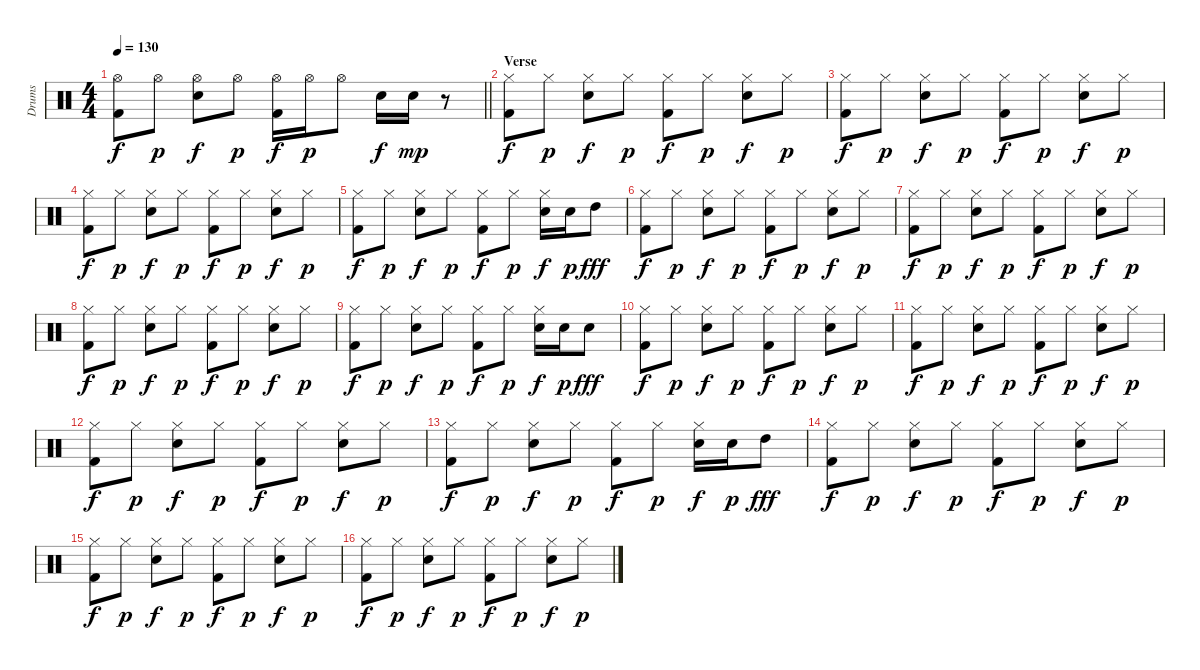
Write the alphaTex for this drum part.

\track ("Drums" "Drums") {instrument percussion}
\staff {score}
\articulation defaults
\ts (4 4)
\tempo 130
\clef neutral
\barLineRight lightlight
\ks c
("Hi-Hat (open)" "Kick (hit) 2").8{dy f} "Hi-Hat (open)".8{dy p} ("Hi-Hat (open)" "Electric Snare (hit)").8{dy f} "Hi-Hat (open)".8{dy p} ("Hi-Hat (open)" "Kick (hit) 2").16{dy f} "Hi-Hat (open)".16{dy p} "Hi-Hat (open)".8 "Electric Snare (hit)".16{dy f} "Electric Snare (hit)".16{dy mp} r.8 |
\section ("" "Verse")
("Hi-Hat (closed)" "Kick (hit) 2").8{dy f} "Hi-Hat (closed)".8{dy p} ("Hi-Hat (closed)" "Electric Snare (hit)").8{dy f} "Hi-Hat (closed)".8{dy p} ("Hi-Hat (closed)" "Kick (hit) 2").8{dy f} "Hi-Hat (closed)".8{dy p} ("Hi-Hat (closed)" "Electric Snare (hit)").8{dy f} "Hi-Hat (closed)".8{dy p} |
("Hi-Hat (closed)" "Kick (hit) 2").8{dy f} "Hi-Hat (closed)".8{dy p} ("Hi-Hat (closed)" "Electric Snare (hit)").8{dy f} "Hi-Hat (closed)".8{dy p} ("Hi-Hat (closed)" "Kick (hit) 2").8{dy f} "Hi-Hat (closed)".8{dy p} ("Hi-Hat (closed)" "Electric Snare (hit)").8{dy f} "Hi-Hat (closed)".8{dy p} |
("Hi-Hat (closed)" "Kick (hit) 2").8{dy f} "Hi-Hat (closed)".8{dy p} ("Hi-Hat (closed)" "Electric Snare (hit)").8{dy f} "Hi-Hat (closed)".8{dy p} ("Hi-Hat (closed)" "Kick (hit) 2").8{dy f} "Hi-Hat (closed)".8{dy p} ("Hi-Hat (closed)" "Electric Snare (hit)").8{dy f} "Hi-Hat (closed)".8{dy p} |
("Hi-Hat (closed)" "Kick (hit) 2").8{dy f} "Hi-Hat (closed)".8{dy p} ("Hi-Hat (closed)" "Electric Snare (hit)").8{dy f} "Hi-Hat (closed)".8{dy p} ("Hi-Hat (closed)" "Kick (hit) 2").8{dy f} "Hi-Hat (closed)".8{dy p} ("Hi-Hat (closed)" "Electric Snare (hit)").16{dy f} "Electric Snare (hit)".16{dy p} "High Tom (hit)".8{dy fff} |
("Hi-Hat (closed)" "Kick (hit) 2").8{dy f} "Hi-Hat (closed)".8{dy p} ("Hi-Hat (closed)" "Electric Snare (hit)").8{dy f} "Hi-Hat (closed)".8{dy p} ("Hi-Hat (closed)" "Kick (hit) 2").8{dy f} "Hi-Hat (closed)".8{dy p} ("Hi-Hat (closed)" "Electric Snare (hit)").8{dy f} "Hi-Hat (closed)".8{dy p} |
("Hi-Hat (closed)" "Kick (hit) 2").8{dy f} "Hi-Hat (closed)".8{dy p} ("Hi-Hat (closed)" "Electric Snare (hit)").8{dy f} "Hi-Hat (closed)".8{dy p} ("Hi-Hat (closed)" "Kick (hit) 2").8{dy f} "Hi-Hat (closed)".8{dy p} ("Hi-Hat (closed)" "Electric Snare (hit)").8{dy f} "Hi-Hat (closed)".8{dy p} |
("Hi-Hat (closed)" "Kick (hit) 2").8{dy f} "Hi-Hat (closed)".8{dy p} ("Hi-Hat (closed)" "Electric Snare (hit)").8{dy f} "Hi-Hat (closed)".8{dy p} ("Hi-Hat (closed)" "Kick (hit) 2").8{dy f} "Hi-Hat (closed)".8{dy p} ("Hi-Hat (closed)" "Electric Snare (hit)").8{dy f} "Hi-Hat (closed)".8{dy p} |
("Hi-Hat (closed)" "Kick (hit) 2").8{dy f} "Hi-Hat (closed)".8{dy p} ("Hi-Hat (closed)" "Electric Snare (hit)").8{dy f} "Hi-Hat (closed)".8{dy p} ("Hi-Hat (closed)" "Kick (hit) 2").8{dy f} "Hi-Hat (closed)".8{dy p} ("Hi-Hat (closed)" "Electric Snare (hit)").16{dy f} "Electric Snare (hit)".16{dy p} "Electric Snare (hit)".8{dy fff} |
("Hi-Hat (closed)" "Kick (hit) 2").8{dy f} "Hi-Hat (closed)".8{dy p} ("Hi-Hat (closed)" "Electric Snare (hit)").8{dy f} "Hi-Hat (closed)".8{dy p} ("Hi-Hat (closed)" "Kick (hit) 2").8{dy f} "Hi-Hat (closed)".8{dy p} ("Hi-Hat (closed)" "Electric Snare (hit)").8{dy f} "Hi-Hat (closed)".8{dy p} |
("Hi-Hat (closed)" "Kick (hit) 2").8{dy f} "Hi-Hat (closed)".8{dy p} ("Hi-Hat (closed)" "Electric Snare (hit)").8{dy f} "Hi-Hat (closed)".8{dy p} ("Hi-Hat (closed)" "Kick (hit) 2").8{dy f} "Hi-Hat (closed)".8{dy p} ("Hi-Hat (closed)" "Electric Snare (hit)").8{dy f} "Hi-Hat (closed)".8{dy p} |
("Hi-Hat (closed)" "Kick (hit) 2").8{dy f} "Hi-Hat (closed)".8{dy p} ("Hi-Hat (closed)" "Electric Snare (hit)").8{dy f} "Hi-Hat (closed)".8{dy p} ("Hi-Hat (closed)" "Kick (hit) 2").8{dy f} "Hi-Hat (closed)".8{dy p} ("Hi-Hat (closed)" "Electric Snare (hit)").8{dy f} "Hi-Hat (closed)".8{dy p} |
("Hi-Hat (closed)" "Kick (hit) 2").8{dy f} "Hi-Hat (closed)".8{dy p} ("Hi-Hat (closed)" "Electric Snare (hit)").8{dy f} "Hi-Hat (closed)".8{dy p} ("Hi-Hat (closed)" "Kick (hit) 2").8{dy f} "Hi-Hat (closed)".8{dy p} ("Hi-Hat (closed)" "Electric Snare (hit)").16{dy f} "Electric Snare (hit)".16{dy p} "High Tom (hit)".8{dy fff} |
("Hi-Hat (closed)" "Kick (hit) 2").8{dy f} "Hi-Hat (closed)".8{dy p} ("Hi-Hat (closed)" "Electric Snare (hit)").8{dy f} "Hi-Hat (closed)".8{dy p} ("Hi-Hat (closed)" "Kick (hit) 2").8{dy f} "Hi-Hat (closed)".8{dy p} ("Hi-Hat (closed)" "Electric Snare (hit)").8{dy f} "Hi-Hat (closed)".8{dy p} |
("Hi-Hat (closed)" "Kick (hit) 2").8{dy f} "Hi-Hat (closed)".8{dy p} ("Hi-Hat (closed)" "Electric Snare (hit)").8{dy f} "Hi-Hat (closed)".8{dy p} ("Hi-Hat (closed)" "Kick (hit) 2").8{dy f} "Hi-Hat (closed)".8{dy p} ("Hi-Hat (closed)" "Electric Snare (hit)").8{dy f} "Hi-Hat (closed)".8{dy p} |
("Hi-Hat (closed)" "Kick (hit) 2").8{dy f} "Hi-Hat (closed)".8{dy p} ("Hi-Hat (closed)" "Electric Snare (hit)").8{dy f} "Hi-Hat (closed)".8{dy p} ("Hi-Hat (closed)" "Kick (hit) 2").8{dy f} "Hi-Hat (closed)".8{dy p} ("Hi-Hat (closed)" "Electric Snare (hit)").8{dy f} "Hi-Hat (closed)".8{dy p}
